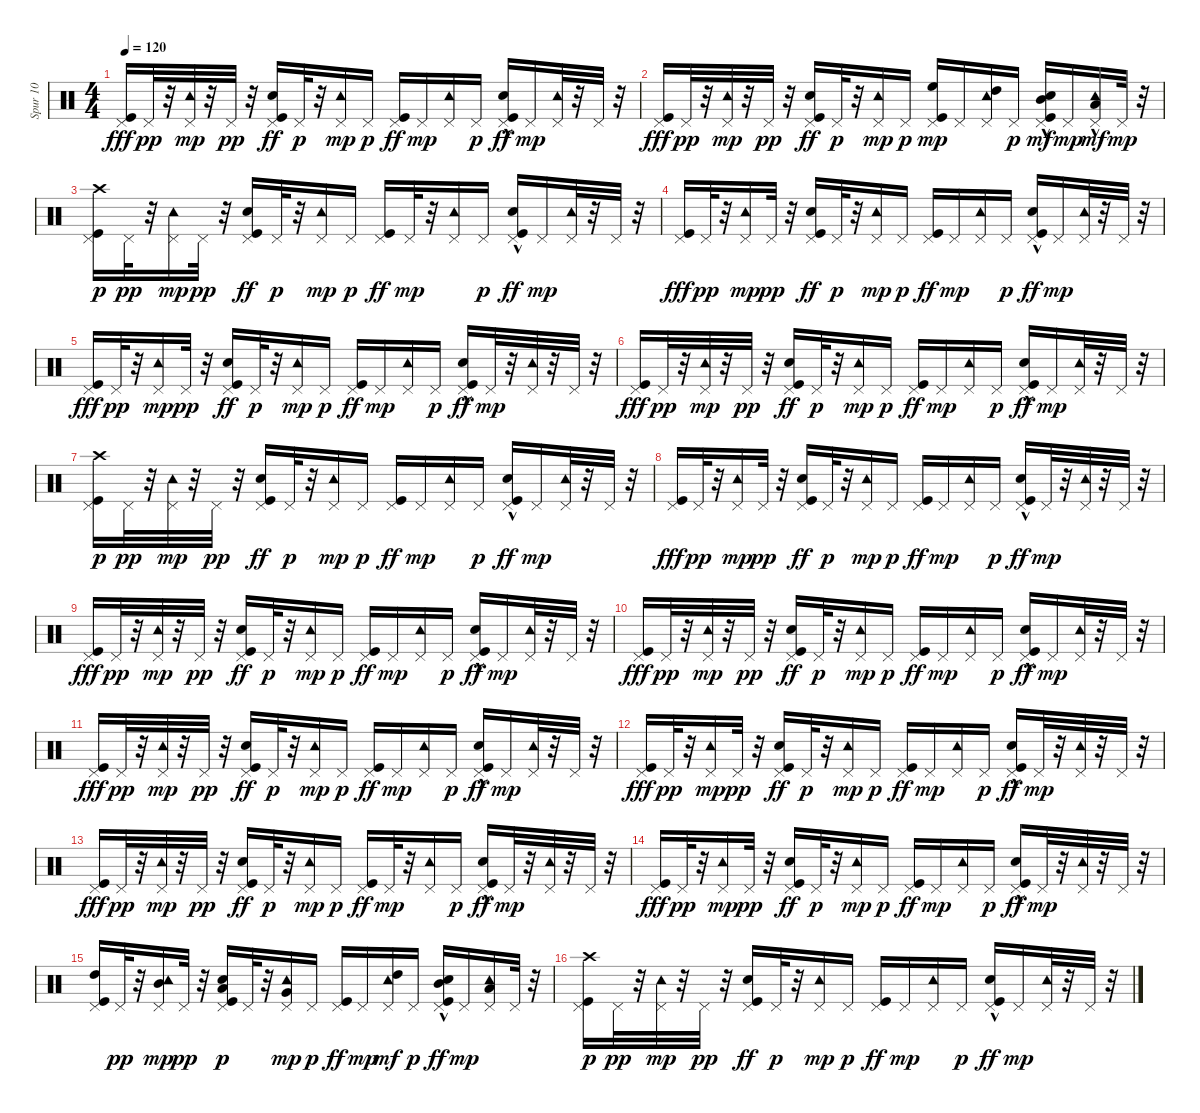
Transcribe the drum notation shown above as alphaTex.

\track ("Spur 10" "Spur 10") {instrument percussion}
\staff {score}
\articulation defaults
\ts (4 4)
\tempo 120
\clef neutral
\ks c
("Pedal Hi-Hat (hit)" "Kick (hit)").16{dy fff} "Pedal Hi-Hat (hit)".32{dy pp} r.32 ("Pedal Hi-Hat (hit)" "Tambourine (hit)").32{dy mp} r.32 "Pedal Hi-Hat (hit)".32{dy pp} r.32 ("Kick (hit)" "Pedal Hi-Hat (hit)" "Snare (hit) 2").16{dy ff} "Pedal Hi-Hat (hit)".32{dy p} r.32 ("Pedal Hi-Hat (hit)" "Tambourine (hit)").16{dy mp} "Pedal Hi-Hat (hit)".16{dy p} ("Kick (hit)" "Pedal Hi-Hat (hit)").16{dy ff} "Pedal Hi-Hat (hit)".16{dy mp} ("Pedal Hi-Hat (hit)" "Tambourine (hit)").16 "Pedal Hi-Hat (hit)".16{dy p} ("Kick (hit)"{hac} "Pedal Hi-Hat (hit)" "Snare (hit) 2"{hac}).16{dy ff} "Pedal Hi-Hat (hit)".16{dy mp} ("Pedal Hi-Hat (hit)" "Tambourine (hit)").32 r.32 "Pedal Hi-Hat (hit)".32 r.32 |
("Pedal Hi-Hat (hit)" "Kick (hit)").16{dy fff} "Pedal Hi-Hat (hit)".32{dy pp} r.32 ("Pedal Hi-Hat (hit)" "Tambourine (hit)").32{dy mp} r.32 "Pedal Hi-Hat (hit)".32{dy pp} r.32 ("Kick (hit)" "Pedal Hi-Hat (hit)" "Snare (hit) 2").16{dy ff} "Pedal Hi-Hat (hit)".32{dy p} r.32 ("Pedal Hi-Hat (hit)" "Tambourine (hit)").16{dy mp} "Pedal Hi-Hat (hit)".16{dy p} ("Kick (hit)" "Pedal Hi-Hat (hit)" "High Floor Tom (hit)").16{dy mp} "Pedal Hi-Hat (hit)".16 ("Pedal Hi-Hat (hit)" "Tambourine (hit)" "High Tom (hit)").16 "Pedal Hi-Hat (hit)".16{dy p} ("Kick (hit)"{hac} "Pedal Hi-Hat (hit)" "Snare (hit) 2"{hac} "Mid Tom (hit)").16{dy mf} "Pedal Hi-Hat (hit)".16{dy mp} ("Pedal Hi-Hat (hit)" "Tambourine (hit)" "Low Tom (hit)"{hac}).16{dy mf} "Pedal Hi-Hat (hit)".32{dy mp} r.32 |
("Pedal Hi-Hat (hit)" "Kick (hit)" "Crash high (hit)").16{dy p} "Pedal Hi-Hat (hit)".32{dy pp} r.32 ("Pedal Hi-Hat (hit)" "Tambourine (hit)").16{dy mp} "Pedal Hi-Hat (hit)".32{dy pp} r.32 ("Kick (hit)" "Pedal Hi-Hat (hit)" "Snare (hit) 2").16{dy ff} "Pedal Hi-Hat (hit)".32{dy p} r.32 ("Pedal Hi-Hat (hit)" "Tambourine (hit)").16{dy mp} "Pedal Hi-Hat (hit)".16{dy p} ("Kick (hit)" "Pedal Hi-Hat (hit)").16{dy ff} "Pedal Hi-Hat (hit)".32{dy mp} r.32 ("Pedal Hi-Hat (hit)" "Tambourine (hit)").16 "Pedal Hi-Hat (hit)".16{dy p} ("Kick (hit)"{hac} "Pedal Hi-Hat (hit)" "Snare (hit) 2"{hac}).16{dy ff} "Pedal Hi-Hat (hit)".16{dy mp} ("Pedal Hi-Hat (hit)" "Tambourine (hit)").32 r.32 "Pedal Hi-Hat (hit)".32 r.32 |
("Pedal Hi-Hat (hit)" "Kick (hit)").16{dy fff} "Pedal Hi-Hat (hit)".32{dy pp} r.32 ("Pedal Hi-Hat (hit)" "Tambourine (hit)").16{dy mp} "Pedal Hi-Hat (hit)".32{dy pp} r.32 ("Kick (hit)" "Pedal Hi-Hat (hit)" "Snare (hit) 2").16{dy ff} "Pedal Hi-Hat (hit)".32{dy p} r.32 ("Pedal Hi-Hat (hit)" "Tambourine (hit)").16{dy mp} "Pedal Hi-Hat (hit)".16{dy p} ("Kick (hit)" "Pedal Hi-Hat (hit)").16{dy ff} "Pedal Hi-Hat (hit)".16{dy mp} ("Pedal Hi-Hat (hit)" "Tambourine (hit)").16 "Pedal Hi-Hat (hit)".16{dy p} ("Kick (hit)"{hac} "Pedal Hi-Hat (hit)" "Snare (hit) 2"{hac}).16{dy ff} "Pedal Hi-Hat (hit)".16{dy mp} ("Pedal Hi-Hat (hit)" "Tambourine (hit)").32 r.32 "Pedal Hi-Hat (hit)".32 r.32 |
("Pedal Hi-Hat (hit)" "Kick (hit)").16{dy fff} "Pedal Hi-Hat (hit)".32{dy pp} r.32 ("Pedal Hi-Hat (hit)" "Tambourine (hit)").16{dy mp} "Pedal Hi-Hat (hit)".32{dy pp} r.32 ("Kick (hit)" "Pedal Hi-Hat (hit)" "Snare (hit) 2").16{dy ff} "Pedal Hi-Hat (hit)".32{dy p} r.32 ("Pedal Hi-Hat (hit)" "Tambourine (hit)").16{dy mp} "Pedal Hi-Hat (hit)".16{dy p} ("Kick (hit)" "Pedal Hi-Hat (hit)").16{dy ff} "Pedal Hi-Hat (hit)".16{dy mp} ("Pedal Hi-Hat (hit)" "Tambourine (hit)").16 "Pedal Hi-Hat (hit)".16{dy p} ("Kick (hit)"{hac} "Pedal Hi-Hat (hit)" "Snare (hit) 2"{hac}).16{dy ff} "Pedal Hi-Hat (hit)".32{dy mp} r.32 ("Pedal Hi-Hat (hit)" "Tambourine (hit)").32 r.32 "Pedal Hi-Hat (hit)".32 r.32 |
("Pedal Hi-Hat (hit)" "Kick (hit)").16{dy fff} "Pedal Hi-Hat (hit)".32{dy pp} r.32 ("Pedal Hi-Hat (hit)" "Tambourine (hit)").32{dy mp} r.32 "Pedal Hi-Hat (hit)".32{dy pp} r.32 ("Kick (hit)" "Pedal Hi-Hat (hit)" "Snare (hit) 2").16{dy ff} "Pedal Hi-Hat (hit)".32{dy p} r.32 ("Pedal Hi-Hat (hit)" "Tambourine (hit)").16{dy mp} "Pedal Hi-Hat (hit)".16{dy p} ("Kick (hit)" "Pedal Hi-Hat (hit)").16{dy ff} "Pedal Hi-Hat (hit)".16{dy mp} ("Pedal Hi-Hat (hit)" "Tambourine (hit)").16 "Pedal Hi-Hat (hit)".16{dy p} ("Kick (hit)"{hac} "Pedal Hi-Hat (hit)" "Snare (hit) 2"{hac}).16{dy ff} "Pedal Hi-Hat (hit)".16{dy mp} ("Pedal Hi-Hat (hit)" "Tambourine (hit)").32 r.32 "Pedal Hi-Hat (hit)".32 r.32 |
("Pedal Hi-Hat (hit)" "Kick (hit)" "Crash high (hit)").16{dy p} "Pedal Hi-Hat (hit)".32{dy pp} r.32 ("Pedal Hi-Hat (hit)" "Tambourine (hit)").32{dy mp} r.32 "Pedal Hi-Hat (hit)".32{dy pp} r.32 ("Kick (hit)" "Pedal Hi-Hat (hit)" "Snare (hit) 2").16{dy ff} "Pedal Hi-Hat (hit)".32{dy p} r.32 ("Pedal Hi-Hat (hit)" "Tambourine (hit)").16{dy mp} "Pedal Hi-Hat (hit)".16{dy p} ("Kick (hit)" "Pedal Hi-Hat (hit)").16{dy ff} "Pedal Hi-Hat (hit)".16{dy mp} ("Pedal Hi-Hat (hit)" "Tambourine (hit)").16 "Pedal Hi-Hat (hit)".16{dy p} ("Kick (hit)"{hac} "Pedal Hi-Hat (hit)" "Snare (hit) 2"{hac}).16{dy ff} "Pedal Hi-Hat (hit)".16{dy mp} ("Pedal Hi-Hat (hit)" "Tambourine (hit)").32 r.32 "Pedal Hi-Hat (hit)".32 r.32 |
("Pedal Hi-Hat (hit)" "Kick (hit)").16{dy fff} "Pedal Hi-Hat (hit)".32{dy pp} r.32 ("Pedal Hi-Hat (hit)" "Tambourine (hit)").16{dy mp} "Pedal Hi-Hat (hit)".32{dy pp} r.32 ("Kick (hit)" "Pedal Hi-Hat (hit)" "Snare (hit) 2").16{dy ff} "Pedal Hi-Hat (hit)".32{dy p} r.32 ("Pedal Hi-Hat (hit)" "Tambourine (hit)").16{dy mp} "Pedal Hi-Hat (hit)".16{dy p} ("Kick (hit)" "Pedal Hi-Hat (hit)").16{dy ff} "Pedal Hi-Hat (hit)".16{dy mp} ("Pedal Hi-Hat (hit)" "Tambourine (hit)").16 "Pedal Hi-Hat (hit)".16{dy p} ("Kick (hit)"{hac} "Pedal Hi-Hat (hit)" "Snare (hit) 2"{hac}).16{dy ff} "Pedal Hi-Hat (hit)".32{dy mp} r.32 ("Pedal Hi-Hat (hit)" "Tambourine (hit)").32 r.32 "Pedal Hi-Hat (hit)".32 r.32 |
("Pedal Hi-Hat (hit)" "Kick (hit)").16{dy fff} "Pedal Hi-Hat (hit)".32{dy pp} r.32 ("Pedal Hi-Hat (hit)" "Tambourine (hit)").32{dy mp} r.32 "Pedal Hi-Hat (hit)".32{dy pp} r.32 ("Kick (hit)" "Pedal Hi-Hat (hit)" "Snare (hit) 2").16{dy ff} "Pedal Hi-Hat (hit)".32{dy p} r.32 ("Pedal Hi-Hat (hit)" "Tambourine (hit)").16{dy mp} "Pedal Hi-Hat (hit)".16{dy p} ("Kick (hit)" "Pedal Hi-Hat (hit)").16{dy ff} "Pedal Hi-Hat (hit)".16{dy mp} ("Pedal Hi-Hat (hit)" "Tambourine (hit)").16 "Pedal Hi-Hat (hit)".16{dy p} ("Kick (hit)"{hac} "Pedal Hi-Hat (hit)" "Snare (hit) 2"{hac}).16{dy ff} "Pedal Hi-Hat (hit)".16{dy mp} ("Pedal Hi-Hat (hit)" "Tambourine (hit)").32 r.32 "Pedal Hi-Hat (hit)".32 r.32 |
("Pedal Hi-Hat (hit)" "Kick (hit)").16{dy fff} "Pedal Hi-Hat (hit)".32{dy pp} r.32 ("Pedal Hi-Hat (hit)" "Tambourine (hit)").32{dy mp} r.32 "Pedal Hi-Hat (hit)".32{dy pp} r.32 ("Kick (hit)" "Pedal Hi-Hat (hit)" "Snare (hit) 2").16{dy ff} "Pedal Hi-Hat (hit)".32{dy p} r.32 ("Pedal Hi-Hat (hit)" "Tambourine (hit)").16{dy mp} "Pedal Hi-Hat (hit)".16{dy p} ("Kick (hit)" "Pedal Hi-Hat (hit)").16{dy ff} "Pedal Hi-Hat (hit)".16{dy mp} ("Pedal Hi-Hat (hit)" "Tambourine (hit)").16 "Pedal Hi-Hat (hit)".16{dy p} ("Kick (hit)"{hac} "Pedal Hi-Hat (hit)" "Snare (hit) 2"{hac}).16{dy ff} "Pedal Hi-Hat (hit)".16{dy mp} ("Pedal Hi-Hat (hit)" "Tambourine (hit)").32 r.32 "Pedal Hi-Hat (hit)".32 r.32 |
("Pedal Hi-Hat (hit)" "Kick (hit)").16{dy fff} "Pedal Hi-Hat (hit)".32{dy pp} r.32 ("Pedal Hi-Hat (hit)" "Tambourine (hit)").32{dy mp} r.32 "Pedal Hi-Hat (hit)".32{dy pp} r.32 ("Kick (hit)" "Pedal Hi-Hat (hit)" "Snare (hit) 2").16{dy ff} "Pedal Hi-Hat (hit)".32{dy p} r.32 ("Pedal Hi-Hat (hit)" "Tambourine (hit)").16{dy mp} "Pedal Hi-Hat (hit)".16{dy p} ("Kick (hit)" "Pedal Hi-Hat (hit)").16{dy ff} "Pedal Hi-Hat (hit)".16{dy mp} ("Pedal Hi-Hat (hit)" "Tambourine (hit)").16 "Pedal Hi-Hat (hit)".16{dy p} ("Kick (hit)"{hac} "Pedal Hi-Hat (hit)" "Snare (hit) 2"{hac}).16{dy ff} "Pedal Hi-Hat (hit)".16{dy mp} ("Pedal Hi-Hat (hit)" "Tambourine (hit)").32 r.32 "Pedal Hi-Hat (hit)".32 r.32 |
("Pedal Hi-Hat (hit)" "Kick (hit)").16{dy fff} "Pedal Hi-Hat (hit)".32{dy pp} r.32 ("Pedal Hi-Hat (hit)" "Tambourine (hit)").16{dy mp} "Pedal Hi-Hat (hit)".32{dy pp} r.32 ("Kick (hit)" "Pedal Hi-Hat (hit)" "Snare (hit) 2").16{dy ff} "Pedal Hi-Hat (hit)".32{dy p} r.32 ("Pedal Hi-Hat (hit)" "Tambourine (hit)").16{dy mp} "Pedal Hi-Hat (hit)".16{dy p} ("Kick (hit)" "Pedal Hi-Hat (hit)").16{dy ff} "Pedal Hi-Hat (hit)".16{dy mp} ("Pedal Hi-Hat (hit)" "Tambourine (hit)").16 "Pedal Hi-Hat (hit)".16{dy p} ("Kick (hit)"{hac} "Pedal Hi-Hat (hit)" "Snare (hit) 2"{hac}).16{dy ff} "Pedal Hi-Hat (hit)".32{dy mp} r.32 ("Pedal Hi-Hat (hit)" "Tambourine (hit)").32 r.32 "Pedal Hi-Hat (hit)".32 r.32 |
("Pedal Hi-Hat (hit)" "Kick (hit)").16{dy fff} "Pedal Hi-Hat (hit)".32{dy pp} r.32 ("Pedal Hi-Hat (hit)" "Tambourine (hit)").32{dy mp} r.32 "Pedal Hi-Hat (hit)".32{dy pp} r.32 ("Kick (hit)" "Pedal Hi-Hat (hit)" "Snare (hit) 2").16{dy ff} "Pedal Hi-Hat (hit)".32{dy p} r.32 ("Pedal Hi-Hat (hit)" "Tambourine (hit)").16{dy mp} "Pedal Hi-Hat (hit)".16{dy p} ("Kick (hit)" "Pedal Hi-Hat (hit)").16{dy ff} "Pedal Hi-Hat (hit)".32{dy mp} r.32 ("Pedal Hi-Hat (hit)" "Tambourine (hit)").16 "Pedal Hi-Hat (hit)".16{dy p} ("Kick (hit)"{hac} "Pedal Hi-Hat (hit)" "Snare (hit) 2"{hac}).16{dy ff} "Pedal Hi-Hat (hit)".32{dy mp} r.32 ("Pedal Hi-Hat (hit)" "Tambourine (hit)").32 r.32 "Pedal Hi-Hat (hit)".32 r.32 |
("Pedal Hi-Hat (hit)" "Kick (hit)").16{dy fff} "Pedal Hi-Hat (hit)".32{dy pp} r.32 ("Pedal Hi-Hat (hit)" "Tambourine (hit)").16{dy mp} "Pedal Hi-Hat (hit)".32{dy pp} r.32 ("Kick (hit)" "Pedal Hi-Hat (hit)" "Snare (hit) 2").16{dy ff} "Pedal Hi-Hat (hit)".32{dy p} r.32 ("Pedal Hi-Hat (hit)" "Tambourine (hit)").16{dy mp} "Pedal Hi-Hat (hit)".16{dy p} ("Kick (hit)" "Pedal Hi-Hat (hit)").16{dy ff} "Pedal Hi-Hat (hit)".16{dy mp} ("Pedal Hi-Hat (hit)" "Tambourine (hit)").16 "Pedal Hi-Hat (hit)".16{dy p} ("Kick (hit)"{hac} "Pedal Hi-Hat (hit)" "Snare (hit) 2"{hac}).16{dy ff} "Pedal Hi-Hat (hit)".32{dy mp} r.32 ("Pedal Hi-Hat (hit)" "Tambourine (hit)").32 r.32 "Pedal Hi-Hat (hit)".32 r.32 |
("Pedal Hi-Hat (hit)" "Kick (hit)" "High Tom (hit)").16 "Pedal Hi-Hat (hit)".32{dy pp} r.32 ("Pedal Hi-Hat (hit)" "Tambourine (hit)" "Mid Tom (hit)").16{dy mp} "Pedal Hi-Hat (hit)".32{dy pp} r.32 ("Kick (hit)" "Pedal Hi-Hat (hit)" "Snare (hit) 2" "Low Tom (hit)").16{dy p} "Pedal Hi-Hat (hit)".32 r.32 ("Pedal Hi-Hat (hit)" "Tambourine (hit)" "Very Low Tom (hit)").16{dy mp} "Pedal Hi-Hat (hit)".16{dy p} ("Kick (hit)" "Pedal Hi-Hat (hit)").16{dy ff} "Pedal Hi-Hat (hit)".16{dy mp} ("Pedal Hi-Hat (hit)" "Tambourine (hit)" "High Tom (hit)").16{dy mf} "Pedal Hi-Hat (hit)".16{dy p} ("Kick (hit)"{hac} "Pedal Hi-Hat (hit)" "Snare (hit) 2"{hac} "Mid Tom (hit)").16{dy ff} "Pedal Hi-Hat (hit)".16{dy mp} ("Pedal Hi-Hat (hit)" "Tambourine (hit)" "Low Tom (hit)").16 "Pedal Hi-Hat (hit)".32 r.32 |
("Pedal Hi-Hat (hit)" "Kick (hit)" "Crash high (hit)").16{dy p} "Pedal Hi-Hat (hit)".32{dy pp} r.32 ("Pedal Hi-Hat (hit)" "Tambourine (hit)").32{dy mp} r.32 "Pedal Hi-Hat (hit)".32{dy pp} r.32 ("Kick (hit)" "Pedal Hi-Hat (hit)" "Snare (hit) 2").16{dy ff} "Pedal Hi-Hat (hit)".32{dy p} r.32 ("Pedal Hi-Hat (hit)" "Tambourine (hit)").16{dy mp} "Pedal Hi-Hat (hit)".16{dy p} ("Kick (hit)" "Pedal Hi-Hat (hit)").16{dy ff} "Pedal Hi-Hat (hit)".16{dy mp} ("Pedal Hi-Hat (hit)" "Tambourine (hit)").16 "Pedal Hi-Hat (hit)".16{dy p} ("Kick (hit)"{hac} "Pedal Hi-Hat (hit)" "Snare (hit) 2"{hac}).16{dy ff} "Pedal Hi-Hat (hit)".16{dy mp} ("Pedal Hi-Hat (hit)" "Tambourine (hit)").32 r.32 "Pedal Hi-Hat (hit)".32 r.32
